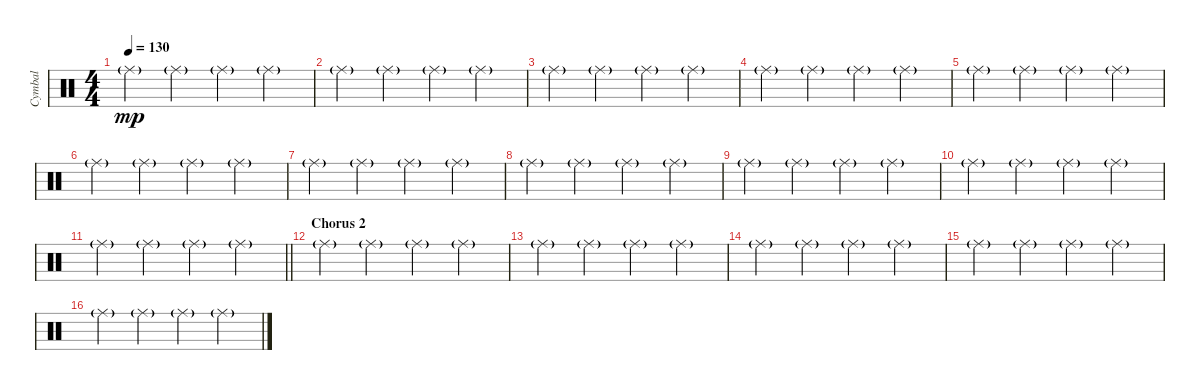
\track ("Cymbal" "Cymbal") {instrument percussion}
\staff {score}
\articulation defaults
\ts (4 4)
\tempo 130
\clef neutral
\ks c "Ride (middle)"{g}.4{dy mp} "Ride (middle)"{g}.4 "Ride (middle)"{g}.4 "Ride (middle)"{g}.4
|
"Ride (middle)"{g}.4 "Ride (middle)"{g}.4 "Ride (middle)"{g}.4 "Ride (middle)"{g}.4 |
"Ride (middle)"{g}.4 "Ride (middle)"{g}.4 "Ride (middle)"{g}.4 "Ride (middle)"{g}.4 |
"Ride (middle)"{g}.4 "Ride (middle)"{g}.4 "Ride (middle)"{g}.4 "Ride (middle)"{g}.4 |
"Ride (middle)"{g}.4 "Ride (middle)"{g}.4 "Ride (middle)"{g}.4 "Ride (middle)"{g}.4 |
"Ride (middle)"{g}.4 "Ride (middle)"{g}.4 "Ride (middle)"{g}.4 "Ride (middle)"{g}.4 |
"Ride (middle)"{g}.4 "Ride (middle)"{g}.4 "Ride (middle)"{g}.4 "Ride (middle)"{g}.4 |
"Ride (middle)"{g}.4 "Ride (middle)"{g}.4 "Ride (middle)"{g}.4 "Ride (middle)"{g}.4 |
"Ride (middle)"{g}.4 "Ride (middle)"{g}.4 "Ride (middle)"{g}.4 "Ride (middle)"{g}.4 |
"Ride (middle)"{g}.4 "Ride (middle)"{g}.4 "Ride (middle)"{g}.4 "Ride (middle)"{g}.4 |
\barLineRight lightlight "Ride (middle)"{g}.4 "Ride (middle)"{g}.4 "Ride (middle)"{g}.4 "Ride (middle)"{g}.4
|
\section ("" "Chorus 2")
"Ride (middle)"{g}.4 "Ride (middle)"{g}.4 "Ride (middle)"{g}.4 "Ride (middle)"{g}.4 |
"Ride (middle)"{g}.4 "Ride (middle)"{g}.4 "Ride (middle)"{g}.4 "Ride (middle)"{g}.4 |
"Ride (middle)"{g}.4 "Ride (middle)"{g}.4 "Ride (middle)"{g}.4 "Ride (middle)"{g}.4 |
"Ride (middle)"{g}.4 "Ride (middle)"{g}.4 "Ride (middle)"{g}.4 "Ride (middle)"{g}.4 |
"Ride (middle)"{g}.4 "Ride (middle)"{g}.4 "Ride (middle)"{g}.4 "Ride (middle)"{g}.4
